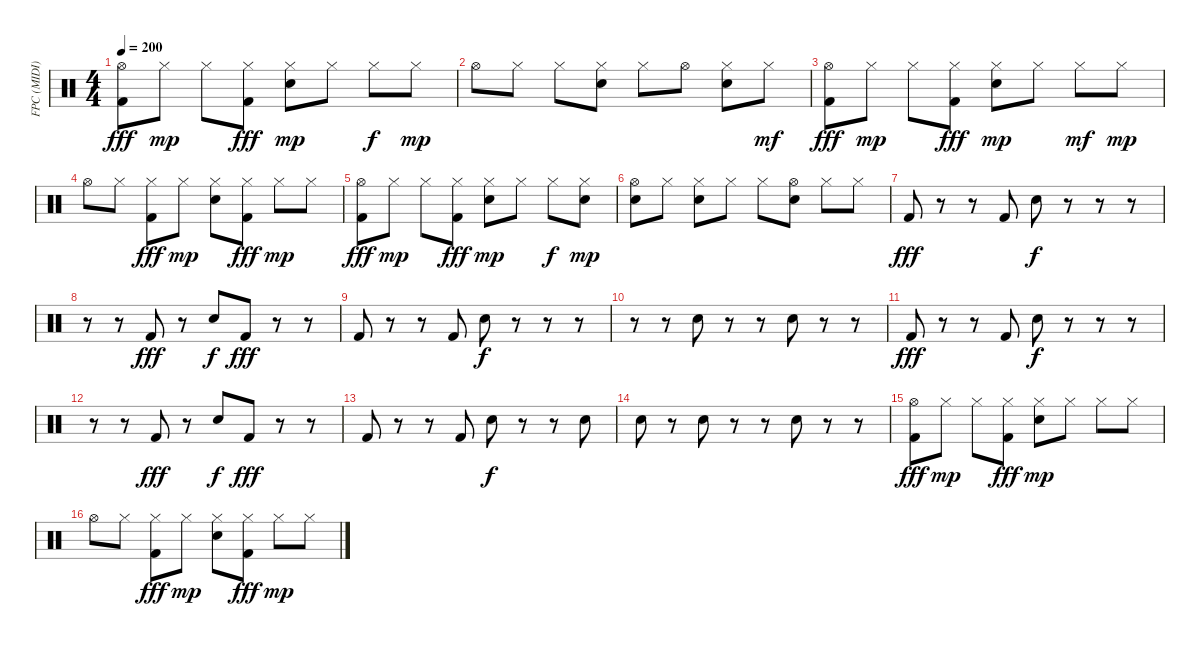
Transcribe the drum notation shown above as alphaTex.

\track ("FPC (MIDI)" "FPC (MIDI)") {instrument percussion}
\staff {score}
\articulation defaults
\ts (4 4)
\tempo 200
\clef neutral
\ks c
("Hi-Hat (open)" "Kick (hit) 2").8{dy fff} "Hi-Hat (closed)".8{dy mp} "Hi-Hat (closed)".8 ("Hi-Hat (closed)" "Kick (hit) 2").8{dy fff} ("Hi-Hat (closed)" "Electric Snare (hit)").8{dy mp} "Hi-Hat (closed)".8 "Hi-Hat (closed)".8{dy f} "Hi-Hat (closed)".8{dy mp} |
"Hi-Hat (open)".8 "Hi-Hat (closed)".8 "Hi-Hat (closed)".8 ("Hi-Hat (closed)" "Electric Snare (hit)").8 "Hi-Hat (closed)".8 "Hi-Hat (open)".8 ("Hi-Hat (closed)" "Electric Snare (hit)").8 "Hi-Hat (closed)".8{dy mf} |
("Hi-Hat (open)" "Kick (hit) 2").8{dy fff} "Hi-Hat (closed)".8{dy mp} "Hi-Hat (closed)".8 ("Hi-Hat (closed)" "Kick (hit) 2").8{dy fff} ("Hi-Hat (closed)" "Electric Snare (hit)").8{dy mp} "Hi-Hat (closed)".8 "Hi-Hat (closed)".8{dy mf} "Hi-Hat (closed)".8{dy mp} |
"Hi-Hat (open)".8 "Hi-Hat (closed)".8 ("Hi-Hat (closed)" "Kick (hit) 2").8{dy fff} "Hi-Hat (closed)".8{dy mp} ("Hi-Hat (closed)" "Electric Snare (hit)").8 ("Hi-Hat (closed)" "Kick (hit) 2").8{dy fff} "Hi-Hat (closed)".8{dy mp} "Hi-Hat (closed)".8 |
("Hi-Hat (open)" "Kick (hit) 2").8{dy fff} "Hi-Hat (closed)".8{dy mp} "Hi-Hat (closed)".8 ("Hi-Hat (closed)" "Kick (hit) 2").8{dy fff} ("Hi-Hat (closed)" "Electric Snare (hit)").8{dy mp} "Hi-Hat (closed)".8 "Hi-Hat (closed)".8{dy f} ("Hi-Hat (closed)" "Electric Snare (hit)").8{dy mp} |
("Hi-Hat (open)" "Electric Snare (hit)").8 "Hi-Hat (closed)".8 ("Hi-Hat (closed)" "Electric Snare (hit)").8 "Hi-Hat (closed)".8 "Hi-Hat (closed)".8 ("Hi-Hat (open)" "Electric Snare (hit)").8 "Hi-Hat (closed)".8 "Hi-Hat (closed)".8 |
"Kick (hit) 2".8{dy fff} r.8 r.8 "Kick (hit) 2".8 "Hand Clap (hit)".8{dy f} r.8 r.8 r.8 |
r.8 r.8 "Kick (hit) 2".8{dy fff} r.8 "Hand Clap (hit)".8{dy f} "Kick (hit) 2".8{dy fff} r.8 r.8 |
"Kick (hit) 2".8 r.8 r.8 "Kick (hit) 2".8 "Hand Clap (hit)".8{dy f} r.8 r.8 r.8 |
r.8 r.8 "Hand Clap (hit)".8 r.8 r.8 "Hand Clap (hit)".8 r.8 r.8 |
"Kick (hit) 2".8{dy fff} r.8 r.8 "Kick (hit) 2".8 "Hand Clap (hit)".8{dy f} r.8 r.8 r.8 |
r.8 r.8 "Kick (hit) 2".8{dy fff} r.8 "Hand Clap (hit)".8{dy f} "Kick (hit) 2".8{dy fff} r.8 r.8 |
"Kick (hit) 2".8 r.8 r.8 "Kick (hit) 2".8 "Hand Clap (hit)".8{dy f} r.8 r.8 "Hand Clap (hit)".8 |
"Hand Clap (hit)".8 r.8 "Hand Clap (hit)".8 r.8 r.8 "Hand Clap (hit)".8 r.8 r.8 |
("Hi-Hat (open)" "Kick (hit) 2").8{dy fff} "Hi-Hat (closed)".8{dy mp} "Hi-Hat (closed)".8 ("Hi-Hat (closed)" "Kick (hit) 2").8{dy fff} ("Hi-Hat (closed)" "Electric Snare (hit)").8{dy mp} "Hi-Hat (closed)".8 "Hi-Hat (closed)".8 "Hi-Hat (closed)".8 |
"Hi-Hat (open)".8 "Hi-Hat (closed)".8 ("Hi-Hat (closed)" "Kick (hit) 2").8{dy fff} "Hi-Hat (closed)".8{dy mp} ("Hi-Hat (closed)" "Electric Snare (hit)").8 ("Hi-Hat (closed)" "Kick (hit) 2").8{dy fff} "Hi-Hat (closed)".8{dy mp} "Hi-Hat (closed)".8
